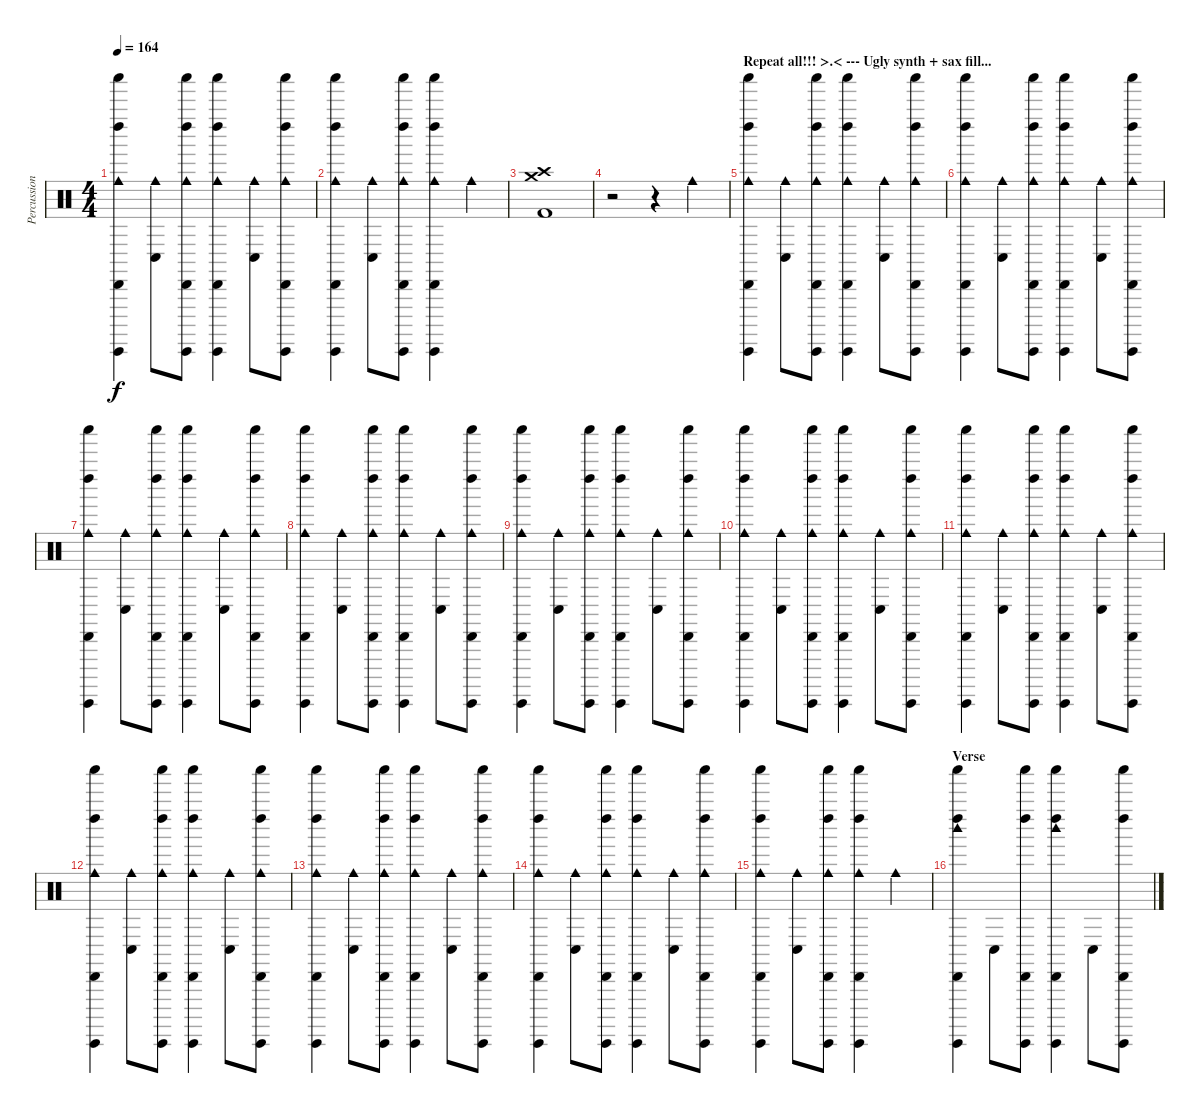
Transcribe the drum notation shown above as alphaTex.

\track ("Percussion" "Percussion") {instrument percussion}
\staff {score}
\articulation defaults
\ts (4 4)
\tempo 164
\clef neutral
\ks c
("Shaker (hit)" "Guiro (hit)" "Left Maraca (hit)" "Cabasa (hit)" "Cowbell medium (hit)").4{dy f} ("Conga low (hit)" "Cowbell medium (hit)").8 ("Shaker (hit)" "Guiro (hit)" "Left Maraca (hit)" "Cabasa (hit)" "Cowbell medium (hit)").8 ("Shaker (hit)" "Guiro (hit)" "Left Maraca (hit)" "Cabasa (hit)" "Cowbell medium (hit)").4 ("Conga low (hit)" "Cowbell medium (hit)").8 ("Shaker (hit)" "Guiro (hit)" "Left Maraca (hit)" "Cabasa (hit)" "Cowbell medium (hit)").8 |
("Shaker (hit)" "Guiro (hit)" "Left Maraca (hit)" "Cabasa (hit)" "Cowbell medium (hit)").4 ("Conga low (hit)" "Cowbell medium (hit)").8 ("Shaker (hit)" "Guiro (hit)" "Left Maraca (hit)" "Cabasa (hit)" "Cowbell medium (hit)").8 ("Shaker (hit)" "Guiro (hit)" "Left Maraca (hit)" "Cabasa (hit)" "Cowbell medium (hit)").4 "Cowbell medium (hit)".4 |
("Crash high (hit)" "Crash medium (hit)" "Kick (hit) 2").1 |
r.2 r.4 "Cowbell medium (hit)".4 |
\section ("" "Repeat all!!! >.< --- Ugly synth + sax fill...")
("Shaker (hit)" "Guiro (hit)" "Left Maraca (hit)" "Cabasa (hit)" "Cowbell medium (hit)").4 ("Conga low (hit)" "Cowbell medium (hit)").8 ("Shaker (hit)" "Guiro (hit)" "Left Maraca (hit)" "Cabasa (hit)" "Cowbell medium (hit)").8 ("Shaker (hit)" "Guiro (hit)" "Left Maraca (hit)" "Cabasa (hit)" "Cowbell medium (hit)").4 ("Conga low (hit)" "Cowbell medium (hit)").8 ("Shaker (hit)" "Guiro (hit)" "Left Maraca (hit)" "Cabasa (hit)" "Cowbell medium (hit)").8 |
("Shaker (hit)" "Guiro (hit)" "Left Maraca (hit)" "Cabasa (hit)" "Cowbell medium (hit)").4 ("Conga low (hit)" "Cowbell medium (hit)").8 ("Shaker (hit)" "Guiro (hit)" "Left Maraca (hit)" "Cabasa (hit)" "Cowbell medium (hit)").8 ("Shaker (hit)" "Guiro (hit)" "Left Maraca (hit)" "Cabasa (hit)" "Cowbell medium (hit)").4 ("Conga low (hit)" "Cowbell medium (hit)").8 ("Shaker (hit)" "Guiro (hit)" "Left Maraca (hit)" "Cabasa (hit)" "Cowbell medium (hit)").8 |
("Shaker (hit)" "Guiro (hit)" "Left Maraca (hit)" "Cabasa (hit)" "Cowbell medium (hit)").4 ("Conga low (hit)" "Cowbell medium (hit)").8 ("Shaker (hit)" "Guiro (hit)" "Left Maraca (hit)" "Cabasa (hit)" "Cowbell medium (hit)").8 ("Shaker (hit)" "Guiro (hit)" "Left Maraca (hit)" "Cabasa (hit)" "Cowbell medium (hit)").4 ("Conga low (hit)" "Cowbell medium (hit)").8 ("Shaker (hit)" "Guiro (hit)" "Left Maraca (hit)" "Cabasa (hit)" "Cowbell medium (hit)").8 |
("Shaker (hit)" "Guiro (hit)" "Left Maraca (hit)" "Cabasa (hit)" "Cowbell medium (hit)").4 ("Conga low (hit)" "Cowbell medium (hit)").8 ("Shaker (hit)" "Guiro (hit)" "Left Maraca (hit)" "Cabasa (hit)" "Cowbell medium (hit)").8 ("Shaker (hit)" "Guiro (hit)" "Left Maraca (hit)" "Cabasa (hit)" "Cowbell medium (hit)").4 ("Conga low (hit)" "Cowbell medium (hit)").8 ("Shaker (hit)" "Guiro (hit)" "Left Maraca (hit)" "Cabasa (hit)" "Cowbell medium (hit)").8 |
("Shaker (hit)" "Guiro (hit)" "Left Maraca (hit)" "Cabasa (hit)" "Cowbell medium (hit)").4 ("Conga low (hit)" "Cowbell medium (hit)").8 ("Shaker (hit)" "Guiro (hit)" "Left Maraca (hit)" "Cabasa (hit)" "Cowbell medium (hit)").8 ("Shaker (hit)" "Guiro (hit)" "Left Maraca (hit)" "Cabasa (hit)" "Cowbell medium (hit)").4 ("Conga low (hit)" "Cowbell medium (hit)").8 ("Shaker (hit)" "Guiro (hit)" "Left Maraca (hit)" "Cabasa (hit)" "Cowbell medium (hit)").8 |
("Shaker (hit)" "Guiro (hit)" "Left Maraca (hit)" "Cabasa (hit)" "Cowbell medium (hit)").4 ("Conga low (hit)" "Cowbell medium (hit)").8 ("Shaker (hit)" "Guiro (hit)" "Left Maraca (hit)" "Cabasa (hit)" "Cowbell medium (hit)").8 ("Shaker (hit)" "Guiro (hit)" "Left Maraca (hit)" "Cabasa (hit)" "Cowbell medium (hit)").4 ("Conga low (hit)" "Cowbell medium (hit)").8 ("Shaker (hit)" "Guiro (hit)" "Left Maraca (hit)" "Cabasa (hit)" "Cowbell medium (hit)").8 |
("Shaker (hit)" "Guiro (hit)" "Left Maraca (hit)" "Cabasa (hit)" "Cowbell medium (hit)").4 ("Conga low (hit)" "Cowbell medium (hit)").8 ("Shaker (hit)" "Guiro (hit)" "Left Maraca (hit)" "Cabasa (hit)" "Cowbell medium (hit)").8 ("Shaker (hit)" "Guiro (hit)" "Left Maraca (hit)" "Cabasa (hit)" "Cowbell medium (hit)").4 ("Conga low (hit)" "Cowbell medium (hit)").8 ("Shaker (hit)" "Guiro (hit)" "Left Maraca (hit)" "Cabasa (hit)" "Cowbell medium (hit)").8 |
("Shaker (hit)" "Guiro (hit)" "Left Maraca (hit)" "Cabasa (hit)" "Cowbell medium (hit)").4 ("Conga low (hit)" "Cowbell medium (hit)").8 ("Shaker (hit)" "Guiro (hit)" "Left Maraca (hit)" "Cabasa (hit)" "Cowbell medium (hit)").8 ("Shaker (hit)" "Guiro (hit)" "Left Maraca (hit)" "Cabasa (hit)" "Cowbell medium (hit)").4 ("Conga low (hit)" "Cowbell medium (hit)").8 ("Shaker (hit)" "Guiro (hit)" "Left Maraca (hit)" "Cabasa (hit)" "Cowbell medium (hit)").8 |
("Shaker (hit)" "Guiro (hit)" "Left Maraca (hit)" "Cabasa (hit)" "Cowbell medium (hit)").4 ("Conga low (hit)" "Cowbell medium (hit)").8 ("Shaker (hit)" "Guiro (hit)" "Left Maraca (hit)" "Cabasa (hit)" "Cowbell medium (hit)").8 ("Shaker (hit)" "Guiro (hit)" "Left Maraca (hit)" "Cabasa (hit)" "Cowbell medium (hit)").4 ("Conga low (hit)" "Cowbell medium (hit)").8 ("Shaker (hit)" "Guiro (hit)" "Left Maraca (hit)" "Cabasa (hit)" "Cowbell medium (hit)").8 |
("Shaker (hit)" "Guiro (hit)" "Left Maraca (hit)" "Cabasa (hit)" "Cowbell medium (hit)").4 ("Conga low (hit)" "Cowbell medium (hit)").8 ("Shaker (hit)" "Guiro (hit)" "Left Maraca (hit)" "Cabasa (hit)" "Cowbell medium (hit)").8 ("Shaker (hit)" "Guiro (hit)" "Left Maraca (hit)" "Cabasa (hit)" "Cowbell medium (hit)").4 ("Conga low (hit)" "Cowbell medium (hit)").8 ("Shaker (hit)" "Guiro (hit)" "Left Maraca (hit)" "Cabasa (hit)" "Cowbell medium (hit)").8 |
("Shaker (hit)" "Guiro (hit)" "Left Maraca (hit)" "Cabasa (hit)" "Cowbell medium (hit)").4 ("Conga low (hit)" "Cowbell medium (hit)").8 ("Shaker (hit)" "Guiro (hit)" "Left Maraca (hit)" "Cabasa (hit)" "Cowbell medium (hit)").8 ("Shaker (hit)" "Guiro (hit)" "Left Maraca (hit)" "Cabasa (hit)" "Cowbell medium (hit)").4 "Cowbell medium (hit)".4 |
\section ("" "Verse")
("Shaker (hit)" "Guiro (hit)" "Left Maraca (hit)" "Cabasa (hit)" "Woodblock high (hit)").4 "Conga low (hit)".8 ("Shaker (hit)" "Guiro (hit)" "Left Maraca (hit)" "Cabasa (hit)").8 ("Shaker (hit)" "Guiro (hit)" "Left Maraca (hit)" "Cabasa (hit)" "Woodblock high (hit)").4 "Conga low (hit)".8 ("Shaker (hit)" "Guiro (hit)" "Left Maraca (hit)" "Cabasa (hit)").8
